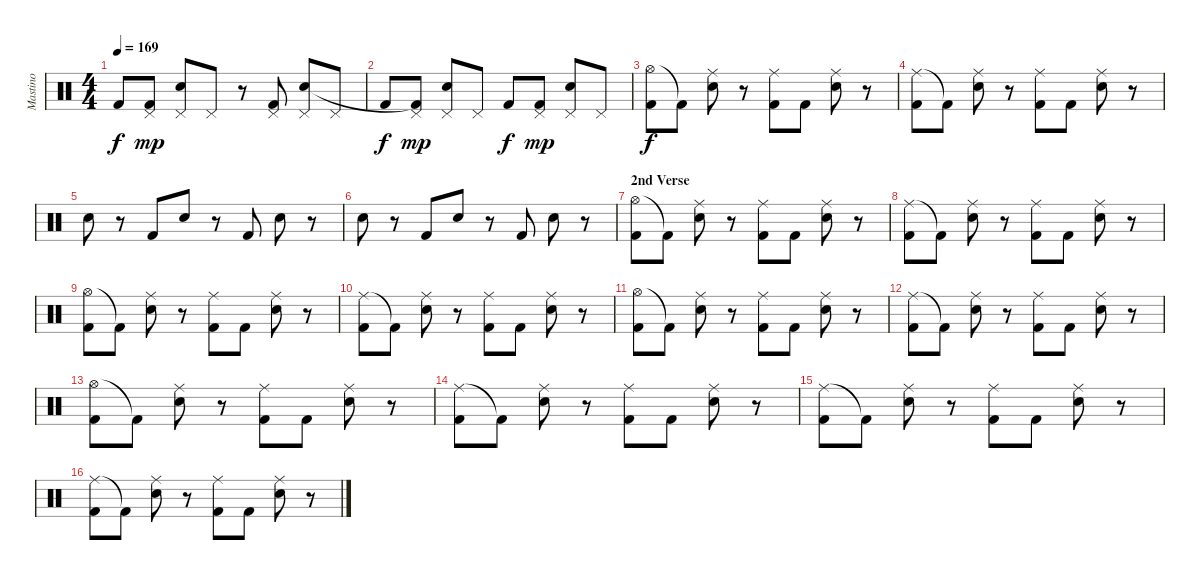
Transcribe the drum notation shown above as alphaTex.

\track ("Mastino" "Mastino") {instrument percussion}
\staff {score}
\articulation defaults
\ts (4 4)
\tempo 169
\clef neutral
\ks c "Kick (hit) 2".8{dy f}
("Pedal Hi-Hat (hit)" "Kick (hit) 2"{t}).8{dy mp} ("Pedal Hi-Hat (hit)" "Electric Snare (hit)").8 "Pedal Hi-Hat (hit)".8 r.8 ("Pedal Hi-Hat (hit)" "Kick (hit) 2").8 ("Pedal Hi-Hat (hit)" "Electric Snare (hit)").8 "Pedal Hi-Hat (hit)".8 |
"Kick (hit) 2".8{dy f} ("Pedal Hi-Hat (hit)" "Kick (hit) 2"{t}).8{dy mp} ("Pedal Hi-Hat (hit)" "Electric Snare (hit)").8 "Pedal Hi-Hat (hit)".8 "Kick (hit) 2".8{dy f} ("Pedal Hi-Hat (hit)" "Kick (hit) 2").8{dy mp} ("Pedal Hi-Hat (hit)" "Electric Snare (hit)").8 "Pedal Hi-Hat (hit)".8 |
("Hi-Hat (open)" "Kick (hit) 2").8{dy f} "Kick (hit) 2"{t}.8 ("Ride (middle)" "Electric Snare (hit)").8 r.8 ("Ride (middle)" "Kick (hit) 2").8 "Kick (hit) 2".8 ("Ride (middle)" "Electric Snare (hit)").8 r.8 |
("Ride (middle)" "Kick (hit) 2").8 "Kick (hit) 2"{t}.8 ("Ride (middle)" "Electric Snare (hit)").8 r.8 ("Ride (middle)" "Kick (hit) 2").8 "Kick (hit) 2".8 ("Ride (middle)" "Electric Snare (hit)").8 r.8 |
"Electric Snare (hit)".8 r.8 "Kick (hit) 2".8 "Electric Snare (hit)".8 r.8 "Kick (hit) 2".8 "Electric Snare (hit)".8 r.8 |
"Electric Snare (hit)".8 r.8 "Kick (hit) 2".8 "Electric Snare (hit)".8 r.8 "Kick (hit) 2".8 "Electric Snare (hit)".8 r.8 |
\section ("" "2nd Verse")
("Hi-Hat (open)" "Kick (hit) 2").8 "Kick (hit) 2"{t}.8 ("Ride (middle)" "Electric Snare (hit)").8 r.8 ("Ride (middle)" "Kick (hit) 2").8 "Kick (hit) 2".8 ("Ride (middle)" "Electric Snare (hit)").8 r.8 |
("Ride (middle)" "Kick (hit) 2").8 "Kick (hit) 2"{t}.8 ("Ride (middle)" "Electric Snare (hit)").8 r.8 ("Ride (middle)" "Kick (hit) 2").8 "Kick (hit) 2".8 ("Ride (middle)" "Electric Snare (hit)").8 r.8 |
("Hi-Hat (open)" "Kick (hit) 2").8 "Kick (hit) 2"{t}.8 ("Ride (middle)" "Electric Snare (hit)").8 r.8 ("Ride (middle)" "Kick (hit) 2").8 "Kick (hit) 2".8 ("Ride (middle)" "Electric Snare (hit)").8 r.8 |
("Ride (middle)" "Kick (hit) 2").8 "Kick (hit) 2"{t}.8 ("Ride (middle)" "Electric Snare (hit)").8 r.8 ("Ride (middle)" "Kick (hit) 2").8 "Kick (hit) 2".8 ("Ride (middle)" "Electric Snare (hit)").8 r.8 |
("Hi-Hat (open)" "Kick (hit) 2").8 "Kick (hit) 2"{t}.8 ("Ride (middle)" "Electric Snare (hit)").8 r.8 ("Ride (middle)" "Kick (hit) 2").8 "Kick (hit) 2".8 ("Ride (middle)" "Electric Snare (hit)").8 r.8 |
("Ride (middle)" "Kick (hit) 2").8 "Kick (hit) 2"{t}.8 ("Ride (middle)" "Electric Snare (hit)").8 r.8 ("Ride (middle)" "Kick (hit) 2").8 "Kick (hit) 2".8 ("Ride (middle)" "Electric Snare (hit)").8 r.8 |
("Hi-Hat (open)" "Kick (hit) 2").8 "Kick (hit) 2"{t}.8 ("Ride (middle)" "Electric Snare (hit)").8 r.8 ("Ride (middle)" "Kick (hit) 2").8 "Kick (hit) 2".8 ("Ride (middle)" "Electric Snare (hit)").8 r.8 |
("Ride (middle)" "Kick (hit) 2").8 "Kick (hit) 2"{t}.8 ("Ride (middle)" "Electric Snare (hit)").8 r.8 ("Ride (middle)" "Kick (hit) 2").8 "Kick (hit) 2".8 ("Ride (middle)" "Electric Snare (hit)").8 r.8 |
("Ride (middle)" "Kick (hit) 2").8 "Kick (hit) 2"{t}.8 ("Ride (middle)" "Electric Snare (hit)").8 r.8 ("Ride (middle)" "Kick (hit) 2").8 "Kick (hit) 2".8 ("Ride (middle)" "Electric Snare (hit)").8 r.8 |
("Ride (middle)" "Kick (hit) 2").8 "Kick (hit) 2"{t}.8 ("Ride (middle)" "Electric Snare (hit)").8 r.8 ("Ride (middle)" "Kick (hit) 2").8 "Kick (hit) 2".8 ("Ride (middle)" "Electric Snare (hit)").8 r.8
